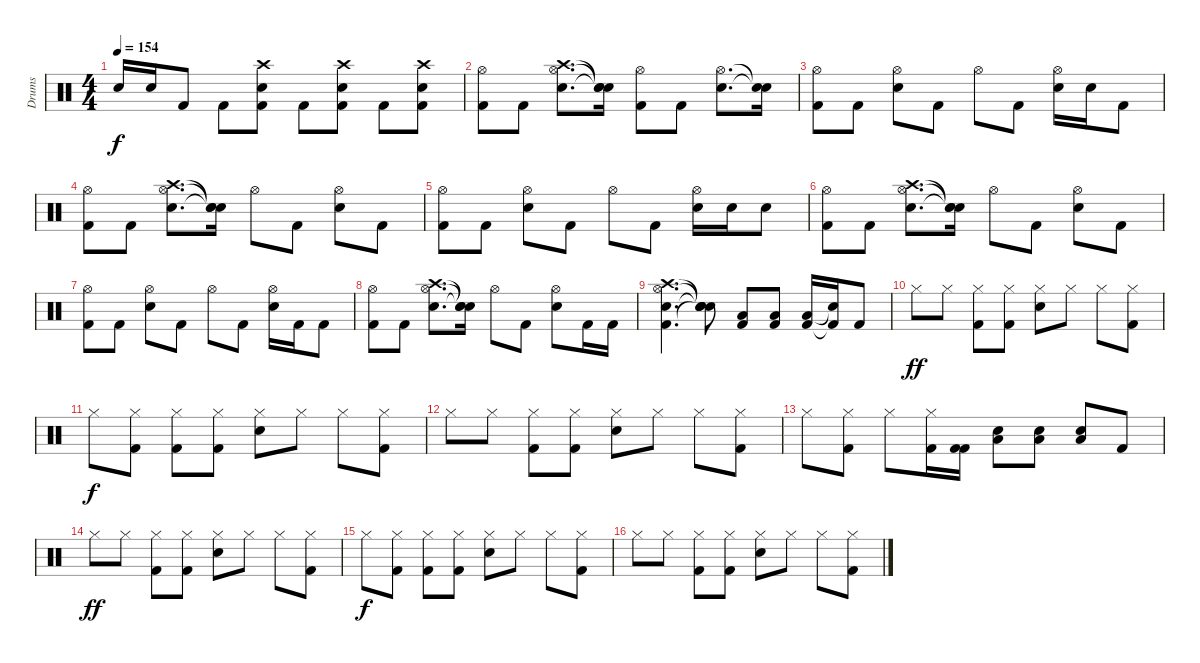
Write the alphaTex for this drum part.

\track ("Drums" "Drums") {instrument percussion}
\staff {score}
\articulation defaults
\ts (4 4)
\tempo 154
\clef neutral
\ks c "Snare (hit) 2".16{dy f} "Snare (hit) 2".16 "Kick (hit) 2".8 "Kick (hit) 2".8
("Kick (hit) 2" "Snare (hit) 2" "Crash high (hit)").8 "Kick (hit) 2".8 ("Kick (hit) 2" "Snare (hit) 2" "Crash high (hit)").8 "Kick (hit) 2".8 ("Kick (hit) 2" "Snare (hit) 2" "Crash high (hit)").8 |
("Kick (hit) 2" "Hi-Hat (open)").8 "Kick (hit) 2".8 ("Snare (hit) 2" "Hi-Hat (open)" "Crash high (hit)").8{d} ("Snare (hit)"{t} "Snare (hit)"{t} "Snare (hit)"{t}).16 ("Kick (hit) 2" "Hi-Hat (open)").8 "Kick (hit) 2".8 ("Snare (hit) 2" "Hi-Hat (open)").8{d} ("Snare (hit)"{t} "Snare (hit)"{t}).16 |
("Kick (hit) 2" "Hi-Hat (open)").8 "Kick (hit) 2".8 ("Snare (hit) 2" "Hi-Hat (open)").8 "Kick (hit) 2".8 "Hi-Hat (open)".8 "Kick (hit) 2".8 ("Snare (hit) 2" "Hi-Hat (open)").16 "Snare (hit) 2".16 "Kick (hit) 2".8 |
("Kick (hit) 2" "Hi-Hat (open)").8 "Kick (hit) 2".8 ("Snare (hit) 2" "Hi-Hat (open)" "Crash high (hit)").8{d} ("Snare (hit)"{t} "Snare (hit)"{t} "Snare (hit)"{t}).16 "Hi-Hat (open)".8 "Kick (hit) 2".8 ("Snare (hit) 2" "Hi-Hat (open)").8 "Kick (hit) 2".8 |
("Kick (hit) 2" "Hi-Hat (open)").8 "Kick (hit) 2".8 ("Snare (hit) 2" "Hi-Hat (open)").8 "Kick (hit) 2".8 "Hi-Hat (open)".8 "Kick (hit) 2".8 ("Snare (hit) 2" "Hi-Hat (open)").16 "Snare (hit) 2".16 "Snare (hit) 2".8 |
("Kick (hit) 2" "Hi-Hat (open)").8 "Kick (hit) 2".8 ("Snare (hit) 2" "Hi-Hat (open)" "Crash high (hit)").8{d} ("Snare (hit)"{t} "Snare (hit)"{t} "Snare (hit)"{t}).16 "Hi-Hat (open)".8 "Kick (hit) 2".8 ("Snare (hit) 2" "Hi-Hat (open)").8 "Kick (hit) 2".8 |
("Kick (hit) 2" "Hi-Hat (open)").8 "Kick (hit) 2".8 ("Snare (hit) 2" "Hi-Hat (open)").8 "Kick (hit) 2".8 "Hi-Hat (open)".8 "Kick (hit) 2".8 ("Snare (hit) 2" "Hi-Hat (open)").16 "Kick (hit) 2".16 "Kick (hit) 2".8 |
("Kick (hit) 2" "Hi-Hat (open)").8 "Kick (hit) 2".8 ("Snare (hit) 2" "Hi-Hat (open)" "Crash high (hit)").8{d} ("Snare (hit)"{t} "Snare (hit)"{t} "Snare (hit)"{t}).16 "Hi-Hat (open)".8 "Kick (hit) 2".8 ("Snare (hit) 2" "Hi-Hat (open)").8 "Kick (hit) 2".16 "Kick (hit) 2".16 |
("Kick (hit) 2" "Snare (hit) 2" "Hi-Hat (open)" "Crash high (hit)").4{d} ("Snare (hit)"{t} "Snare (hit)"{t} "Snare (hit)"{t} "Snare (hit)"{t}).8 ("Kick (hit) 2" "Low Floor Tom (hit)").8 ("Kick (hit) 2" "Low Floor Tom (hit)").8 ("Kick (hit) 2" "Low Floor Tom (hit)").16 ("Kick (hit) 2"{t} "Snare (hit)"{t}).16 "Kick (hit) 2".8 |
"Hi-Hat (closed)".8{dy ff} "Hi-Hat (closed)".8 ("Kick (hit) 2" "Hi-Hat (closed)").8 ("Kick (hit) 2" "Hi-Hat (closed)").8 ("Snare (hit) 2" "Hi-Hat (closed)").8 "Hi-Hat (closed)".8 "Hi-Hat (closed)".8 ("Kick (hit) 2" "Hi-Hat (closed)").8 |
"Hi-Hat (closed)".8{dy f} ("Kick (hit) 2" "Hi-Hat (closed)").8 ("Kick (hit) 2" "Hi-Hat (closed)").8 ("Kick (hit) 2" "Hi-Hat (closed)").8 ("Snare (hit) 2" "Hi-Hat (closed)").8 "Hi-Hat (closed)".8 "Hi-Hat (closed)".8 ("Kick (hit) 2" "Hi-Hat (closed)").8 |
"Hi-Hat (closed)".8 "Hi-Hat (closed)".8 ("Kick (hit) 2" "Hi-Hat (closed)").8 ("Kick (hit) 2" "Hi-Hat (closed)").8 ("Snare (hit) 2" "Hi-Hat (closed)").8 "Hi-Hat (closed)".8 "Hi-Hat (closed)".8 ("Kick (hit) 2" "Hi-Hat (closed)").8 |
"Hi-Hat (closed)".8 ("Kick (hit) 2" "Hi-Hat (closed)").8 "Hi-Hat (closed)".8 ("Kick (hit) 2" "Hi-Hat (closed)").16 ("Kick (hit) 2" "Kick (hit) 2").16 ("Snare (hit) 2" "Low Floor Tom (hit)").8 ("Snare (hit) 2" "Low Floor Tom (hit)").8 ("Snare (hit) 2" "Low Floor Tom (hit)").8 "Kick (hit) 2".8 |
"Hi-Hat (closed)".8{dy ff} "Hi-Hat (closed)".8 ("Kick (hit) 2" "Hi-Hat (closed)").8 ("Kick (hit) 2" "Hi-Hat (closed)").8 ("Snare (hit) 2" "Hi-Hat (closed)").8 "Hi-Hat (closed)".8 "Hi-Hat (closed)".8 ("Kick (hit) 2" "Hi-Hat (closed)").8 |
"Hi-Hat (closed)".8{dy f} ("Kick (hit) 2" "Hi-Hat (closed)").8 ("Kick (hit) 2" "Hi-Hat (closed)").8 ("Kick (hit) 2" "Hi-Hat (closed)").8 ("Snare (hit) 2" "Hi-Hat (closed)").8 "Hi-Hat (closed)".8 "Hi-Hat (closed)".8 ("Kick (hit) 2" "Hi-Hat (closed)").8 |
"Hi-Hat (closed)".8 "Hi-Hat (closed)".8 ("Kick (hit) 2" "Hi-Hat (closed)").8 ("Kick (hit) 2" "Hi-Hat (closed)").8 ("Snare (hit) 2" "Hi-Hat (closed)").8 "Hi-Hat (closed)".8 "Hi-Hat (closed)".8 ("Kick (hit) 2" "Hi-Hat (closed)").8
